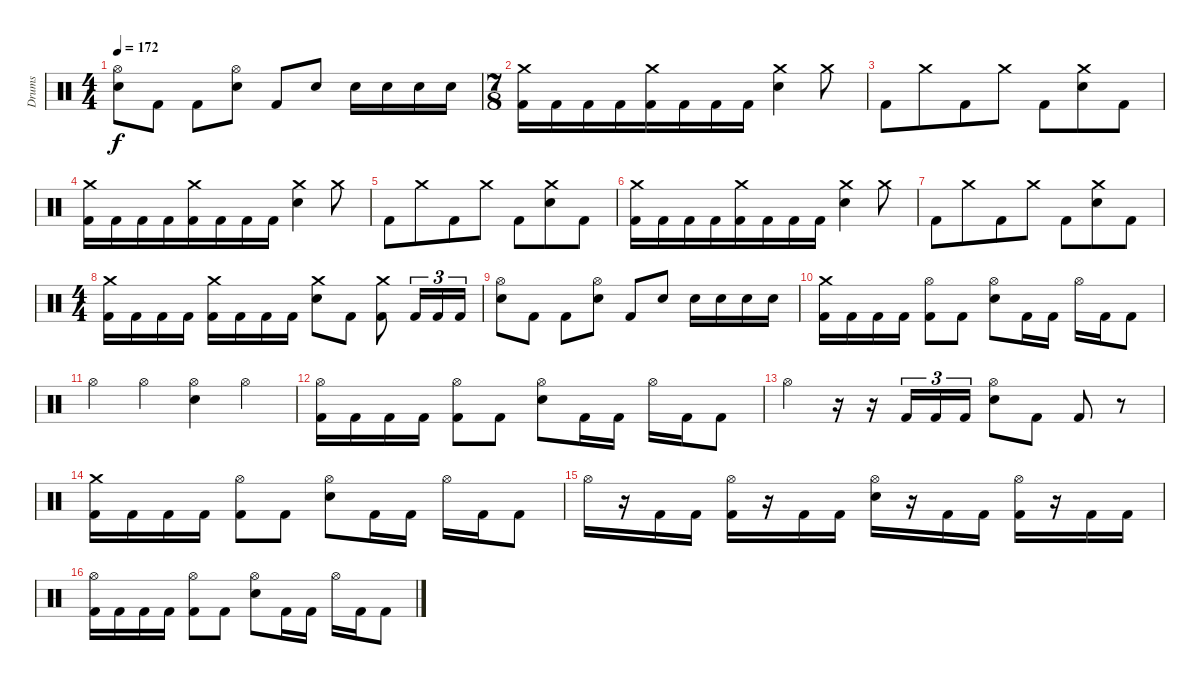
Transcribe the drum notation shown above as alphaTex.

\track ("Drums" "Drums") {instrument percussion}
\staff {score}
\articulation defaults
\ts (4 4)
\tempo 172
\clef neutral
\ks c
("Hi-Hat (open)" "Electric Snare (hit)").8{dy f} "Kick (hit) 2".8 "Kick (hit) 2".8 ("Hi-Hat (open)" "Electric Snare (hit)").8 "Kick (hit) 2".8 "Electric Snare (hit)".8 "Electric Snare (hit)".16 "Electric Snare (hit)".16 "Electric Snare (hit)".16 "Electric Snare (hit)".16 |
\ts (7 8)
("Crash medium (hit)" "Kick (hit) 2").16 "Kick (hit) 2".16 "Kick (hit) 2".16 "Kick (hit) 2".16 ("Crash medium (hit)" "Kick (hit) 2").16 "Kick (hit) 2".16 "Kick (hit) 2".16 "Kick (hit) 2".16 ("Crash medium (hit)" "Electric Snare (hit)").4 "Crash medium (hit)".8 |
"Kick (hit) 2".8 "Crash medium (hit)".8 "Kick (hit) 2".8 "Crash medium (hit)".8 "Kick (hit) 2".8 ("Crash medium (hit)" "Electric Snare (hit)").8 "Kick (hit) 2".8 |
("Crash medium (hit)" "Kick (hit) 2").16 "Kick (hit) 2".16 "Kick (hit) 2".16 "Kick (hit) 2".16 ("Crash medium (hit)" "Kick (hit) 2").16 "Kick (hit) 2".16 "Kick (hit) 2".16 "Kick (hit) 2".16 ("Crash medium (hit)" "Electric Snare (hit)").4 "Crash medium (hit)".8 |
"Kick (hit) 2".8 "Crash medium (hit)".8 "Kick (hit) 2".8 "Crash medium (hit)".8 "Kick (hit) 2".8 ("Crash medium (hit)" "Electric Snare (hit)").8 "Kick (hit) 2".8 |
("Crash medium (hit)" "Kick (hit) 2").16 "Kick (hit) 2".16 "Kick (hit) 2".16 "Kick (hit) 2".16 ("Crash medium (hit)" "Kick (hit) 2").16 "Kick (hit) 2".16 "Kick (hit) 2".16 "Kick (hit) 2".16 ("Crash medium (hit)" "Electric Snare (hit)").4 "Crash medium (hit)".8 |
"Kick (hit) 2".8 "Crash medium (hit)".8 "Kick (hit) 2".8 "Crash medium (hit)".8 "Kick (hit) 2".8 ("Crash medium (hit)" "Electric Snare (hit)").8 "Kick (hit) 2".8 |
\ts (4 4)
("Crash medium (hit)" "Kick (hit) 2").16 "Kick (hit) 2".16 "Kick (hit) 2".16 "Kick (hit) 2".16 ("Crash medium (hit)" "Kick (hit) 2").16 "Kick (hit) 2".16 "Kick (hit) 2".16 "Kick (hit) 2".16 ("Crash medium (hit)" "Electric Snare (hit)").8 "Kick (hit) 2".8 ("Crash medium (hit)" "Kick (hit) 2").8 "Kick (hit) 2".16{tu (3 2)} "Kick (hit) 2".16{tu (3 2)} "Kick (hit) 2".16{tu (3 2)} |
("Hi-Hat (open)" "Electric Snare (hit)").8 "Kick (hit) 2".8 "Kick (hit) 2".8 ("Hi-Hat (open)" "Electric Snare (hit)").8 "Kick (hit) 2".8 "Electric Snare (hit)".8 "Electric Snare (hit)".16 "Electric Snare (hit)".16 "Electric Snare (hit)".16 "Electric Snare (hit)".16 |
("Crash medium (hit)" "Kick (hit) 2").16 "Kick (hit) 2".16 "Kick (hit) 2".16 "Kick (hit) 2".16 ("Hi-Hat (open)" "Kick (hit) 2").8 "Kick (hit) 2".8 ("Hi-Hat (open)" "Electric Snare (hit)").8 "Kick (hit) 2".16 "Kick (hit) 2".16 "Hi-Hat (open)".16 "Kick (hit) 2".16 "Kick (hit) 2".8 |
"Hi-Hat (open)".4 "Hi-Hat (open)".4 ("Hi-Hat (open)" "Electric Snare (hit)").4 "Hi-Hat (open)".4 |
("Hi-Hat (open)" "Kick (hit) 2").16 "Kick (hit) 2".16 "Kick (hit) 2".16 "Kick (hit) 2".16 ("Hi-Hat (open)" "Kick (hit) 2").8 "Kick (hit) 2".8 ("Hi-Hat (open)" "Electric Snare (hit)").8 "Kick (hit) 2".16 "Kick (hit) 2".16 "Hi-Hat (open)".16 "Kick (hit) 2".16 "Kick (hit) 2".8 |
"Hi-Hat (open)".4 r.16 r.16 "Kick (hit) 2".16{tu (3 2)} "Kick (hit) 2".16{tu (3 2)} "Kick (hit) 2".16{tu (3 2)} ("Hi-Hat (open)" "Electric Snare (hit)").8 "Kick (hit) 2".8 "Kick (hit) 2".8 r.8 |
("Crash medium (hit)" "Kick (hit) 2").16 "Kick (hit) 2".16 "Kick (hit) 2".16 "Kick (hit) 2".16 ("Hi-Hat (open)" "Kick (hit) 2").8 "Kick (hit) 2".8 ("Hi-Hat (open)" "Electric Snare (hit)").8 "Kick (hit) 2".16 "Kick (hit) 2".16 "Hi-Hat (open)".16 "Kick (hit) 2".16 "Kick (hit) 2".8 |
"Hi-Hat (open)".16 r.16 "Kick (hit) 2".16 "Kick (hit) 2".16 ("Hi-Hat (open)" "Kick (hit) 2").16 r.16 "Kick (hit) 2".16 "Kick (hit) 2".16 ("Hi-Hat (open)" "Electric Snare (hit)").16 r.16 "Kick (hit) 2".16 "Kick (hit) 2".16 ("Hi-Hat (open)" "Kick (hit) 2").16 r.16 "Kick (hit) 2".16 "Kick (hit) 2".16 |
("Hi-Hat (open)" "Kick (hit) 2").16 "Kick (hit) 2".16 "Kick (hit) 2".16 "Kick (hit) 2".16 ("Hi-Hat (open)" "Kick (hit) 2").8 "Kick (hit) 2".8 ("Hi-Hat (open)" "Electric Snare (hit)").8 "Kick (hit) 2".16 "Kick (hit) 2".16 "Hi-Hat (open)".16 "Kick (hit) 2".16 "Kick (hit) 2".8
